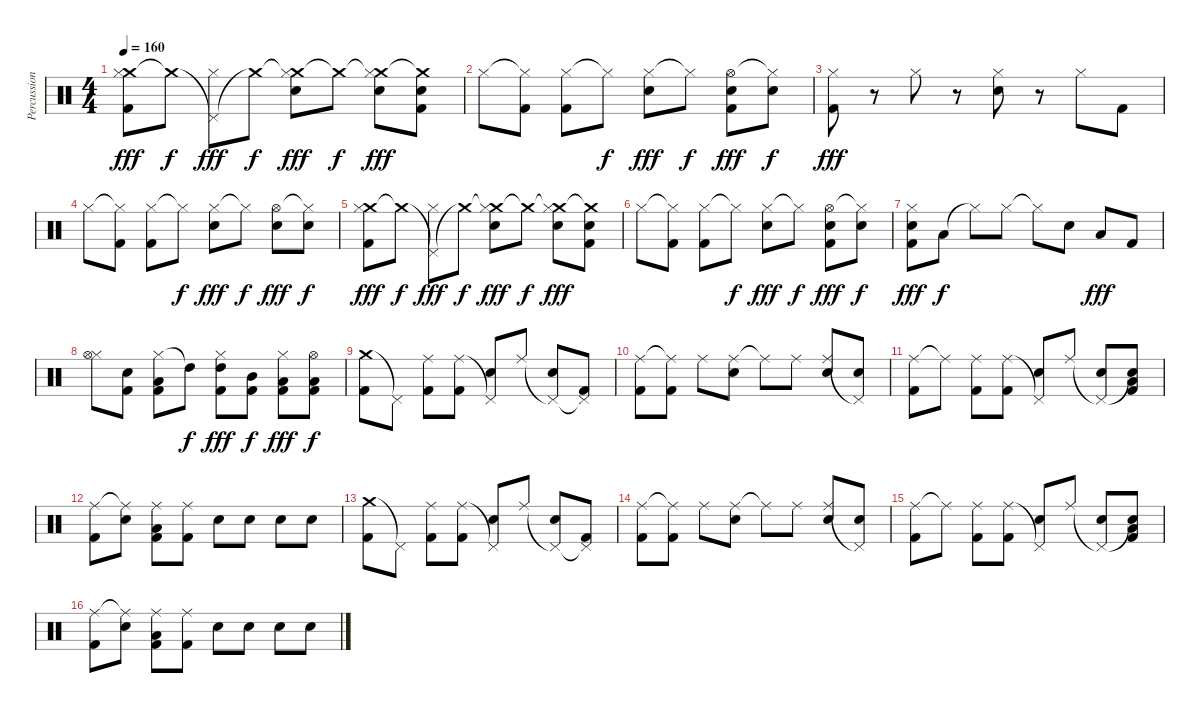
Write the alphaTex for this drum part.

\track ("Percussions" "Percussion") {instrument percussion}
\staff {score}
\articulation defaults
\ts (4 4)
\tempo 160
\clef neutral
\ks c
("Crash medium (hit)" "Hi-Hat (closed)" "Kick (hit) 2").8{dy fff} "Crash medium (hit)"{t}.8{dy f} ("Pedal Hi-Hat (hit)"{t} "Hi-Hat (closed)").8{dy fff} "Crash medium (hit)"{t}.8{dy f} ("Crash medium (hit)"{t} "Hi-Hat (closed)" "Snare (hit) 2").8{dy fff} "Crash medium (hit)"{t}.8{dy f} ("Crash medium (hit)"{t} "Hi-Hat (closed)" "Snare (hit) 2").8{dy fff} ("Crash medium (hit)"{t} "Snare (hit) 2" "Kick (hit) 2").8 |
"Hi-Hat (closed)".8 ("Hi-Hat (closed)"{t} "Kick (hit) 2").8 ("Hi-Hat (closed)" "Kick (hit) 2").8 "Hi-Hat (closed)"{t}.8{dy f} ("Hi-Hat (closed)" "Snare (hit) 2").8{dy fff} "Hi-Hat (closed)"{t}.8{dy f} ("Hi-Hat (open)" "Snare (hit) 2" "Kick (hit) 2").8{dy fff} ("Hi-Hat (closed)"{t} "Snare (hit) 2").8{dy f} |
("Hi-Hat (closed)" "Kick (hit) 2").8{dy fff} r.8 "Hi-Hat (closed)".8 r.8 ("Hi-Hat (closed)" "Snare (hit) 2").8 r.8 "Hi-Hat (closed)".8 "Kick (hit) 2".8 |
"Hi-Hat (closed)".8 ("Hi-Hat (closed)"{t} "Kick (hit) 2").8 ("Hi-Hat (closed)" "Kick (hit) 2").8 "Hi-Hat (closed)"{t}.8{dy f} ("Hi-Hat (closed)" "Snare (hit) 2").8{dy fff} "Hi-Hat (closed)"{t}.8{dy f} ("Hi-Hat (open)" "Snare (hit) 2").8{dy fff} ("Hi-Hat (closed)"{t} "Snare (hit) 2").8{dy f} |
("Crash medium (hit)" "Hi-Hat (closed)" "Kick (hit) 2").8{dy fff} "Crash medium (hit)"{t}.8{dy f} ("Pedal Hi-Hat (hit)"{t} "Hi-Hat (closed)").8{dy fff} "Crash medium (hit)"{t}.8{dy f} ("Crash medium (hit)"{t} "Hi-Hat (closed)" "Snare (hit) 2").8{dy fff} "Crash medium (hit)"{t}.8{dy f} ("Crash medium (hit)"{t} "Hi-Hat (closed)" "Snare (hit) 2").8{dy fff} ("Crash medium (hit)"{t} "Snare (hit) 2" "Kick (hit) 2").8 |
"Hi-Hat (closed)".8 ("Hi-Hat (closed)"{t} "Kick (hit) 2").8 ("Hi-Hat (closed)" "Kick (hit) 2").8 "Hi-Hat (closed)"{t}.8{dy f} ("Hi-Hat (closed)" "Snare (hit) 2").8{dy fff} "Hi-Hat (closed)"{t}.8{dy f} ("Hi-Hat (open)" "Snare (hit) 2" "Kick (hit) 2").8{dy fff} ("Hi-Hat (closed)"{t} "Snare (hit) 2").8{dy f} |
("Hi-Hat (closed)" "Snare (hit) 2" "Kick (hit) 2").8{dy fff} "Low Tom (hit)".8{dy f} "Hi-Hat (closed)"{t}.8 "Hi-Hat (closed)".8 "Hi-Hat (closed)"{t}.8 "Snare (hit) 2".8 "Low Tom (hit)".8{dy fff} "Kick (hit) 2".8 |
("Hi-Hat (closed)" "Hi-Hat (open)").8 ("Snare (hit) 2" "Kick (hit) 2").8 ("Hi-Hat (closed)" "Low Tom (hit)" "Kick (hit) 2").8 "High Tom (hit)"{t}.8{dy f} ("Hi-Hat (closed)" "High Tom (hit)" "Kick (hit) 2").8{dy fff} ("Mid Tom (hit)" "Kick (hit) 2").8{dy f} ("Hi-Hat (closed)" "Low Tom (hit)" "Kick (hit) 2").8{dy fff} ("Hi-Hat (open)" "Low Floor Tom (hit)" "Kick (hit) 2").8{dy f} |
("Crash medium (hit)" "Kick (hit) 2").8 "Pedal Hi-Hat (hit)"{t}.8 ("Ride (middle)" "Kick (hit) 2").8 ("Ride (middle)" "Kick (hit) 2").8 ("Pedal Hi-Hat (hit)"{t} "Snare (hit) 2").8 "Ride (middle)".8 ("Pedal Hi-Hat (hit)"{t} "Snare (hit) 2").8 ("Pedal Hi-Hat (hit)"{t} "Kick (hit) 2").8 |
("Ride (middle)" "Kick (hit) 2").8 ("Ride (middle)"{t} "Kick (hit) 2").8 "Ride (middle)".8 ("Ride (middle)" "Snare (hit) 2").8 "Ride (middle)"{t}.8 "Ride (middle)".8 ("Ride (middle)" "Snare (hit) 2").8 ("Pedal Hi-Hat (hit)"{t} "Snare (hit) 2").8 |
("Ride (middle)" "Kick (hit) 2").8 "Ride (middle)"{t}.8 ("Ride (middle)" "Kick (hit) 2").8 ("Ride (middle)" "Kick (hit) 2").8 ("Pedal Hi-Hat (hit)"{t} "Snare (hit) 2").8 "Ride (middle)".8 ("Pedal Hi-Hat (hit)"{t} "Snare (hit) 2").8 ("Snare (hit)"{t} "Low Tom (hit)" "Kick (hit) 2").8 |
("Ride (middle)" "Kick (hit) 2").8 ("Ride (middle)"{t} "Snare (hit) 2").8 ("Ride (middle)" "Low Tom (hit)" "Kick (hit) 2").8 ("Ride (middle)" "Kick (hit) 2").8 "Snare (hit) 2".8 "Snare (hit) 2".8 "Snare (hit) 2".8 "Snare (hit) 2".8 |
("Crash medium (hit)" "Kick (hit) 2").8 "Pedal Hi-Hat (hit)"{t}.8 ("Ride (middle)" "Kick (hit) 2").8 ("Ride (middle)" "Kick (hit) 2").8 ("Pedal Hi-Hat (hit)"{t} "Snare (hit) 2").8 "Ride (middle)".8 ("Pedal Hi-Hat (hit)"{t} "Snare (hit) 2").8 ("Pedal Hi-Hat (hit)"{t} "Kick (hit) 2").8 |
("Ride (middle)" "Kick (hit) 2").8 ("Ride (middle)"{t} "Kick (hit) 2").8 "Ride (middle)".8 ("Ride (middle)" "Snare (hit) 2").8 "Ride (middle)"{t}.8 "Ride (middle)".8 ("Ride (middle)" "Snare (hit) 2").8 ("Pedal Hi-Hat (hit)"{t} "Snare (hit) 2").8 |
("Ride (middle)" "Kick (hit) 2").8 "Ride (middle)"{t}.8 ("Ride (middle)" "Kick (hit) 2").8 ("Ride (middle)" "Kick (hit) 2").8 ("Pedal Hi-Hat (hit)"{t} "Snare (hit) 2").8 "Ride (middle)".8 ("Pedal Hi-Hat (hit)"{t} "Snare (hit) 2").8 ("Snare (hit)"{t} "Low Tom (hit)" "Kick (hit) 2").8 |
("Ride (middle)" "Kick (hit) 2").8 ("Ride (middle)"{t} "Snare (hit) 2").8 ("Ride (middle)" "Low Tom (hit)" "Kick (hit) 2").8 ("Ride (middle)" "Kick (hit) 2").8 "Snare (hit) 2".8 "Snare (hit) 2".8 "Snare (hit) 2".8 "Snare (hit) 2".8
